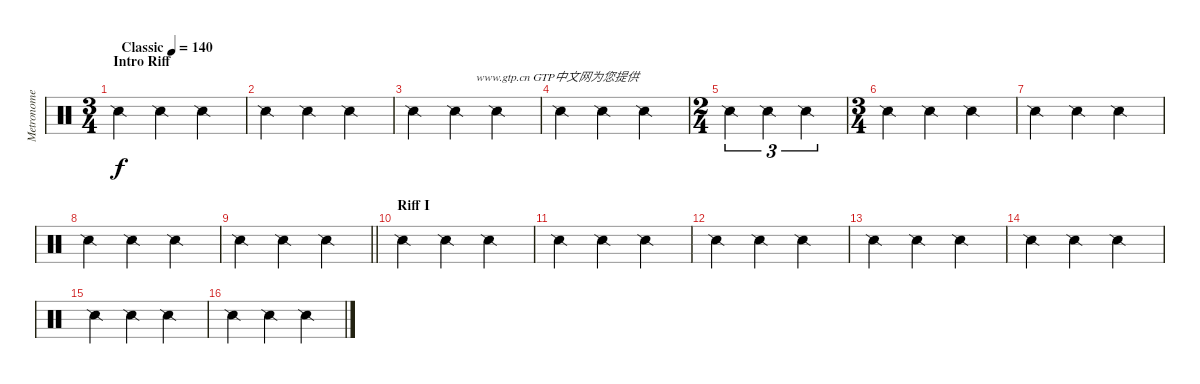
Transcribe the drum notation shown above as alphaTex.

\track ("Metronome" "Metronome") {instrument percussion}
\staff {score}
\articulation defaults
\ts (3 4)
\section ("" "Intro Riff")
\tempo (140 "Classic")
\clef neutral
\ks c "Snare (side stick) 2".4{dy f volume 13 balance 8} "Snare (side stick) 2".4 "Snare (side stick) 2".4
|
"Snare (side stick) 2".4 "Snare (side stick) 2".4 "Snare (side stick) 2".4 |
"Snare (side stick) 2".4{txt "                    www.gtp.cn GTP中文网为您提供"} "Snare (side stick) 2".4 "Snare (side stick) 2".4 |
"Snare (side stick) 2".4 "Snare (side stick) 2".4 "Snare (side stick) 2".4 |
\ts (2 4)
"Snare (side stick) 2".4{tu (3 2)} "Snare (side stick) 2".4{tu (3 2)} "Snare (side stick) 2".4{tu (3 2)} |
\ts (3 4)
"Snare (side stick) 2".4 "Snare (side stick) 2".4 "Snare (side stick) 2".4 |
"Snare (side stick) 2".4 "Snare (side stick) 2".4 "Snare (side stick) 2".4 |
"Snare (side stick) 2".4 "Snare (side stick) 2".4 "Snare (side stick) 2".4 |
\barLineRight lightlight "Snare (side stick) 2".4 "Snare (side stick) 2".4 "Snare (side stick) 2".4
|
\section ("" "Riff I")
"Snare (side stick) 2".4 "Snare (side stick) 2".4 "Snare (side stick) 2".4 |
"Snare (side stick) 2".4 "Snare (side stick) 2".4 "Snare (side stick) 2".4 |
"Snare (side stick) 2".4 "Snare (side stick) 2".4 "Snare (side stick) 2".4 |
"Snare (side stick) 2".4 "Snare (side stick) 2".4 "Snare (side stick) 2".4 |
"Snare (side stick) 2".4 "Snare (side stick) 2".4 "Snare (side stick) 2".4 |
"Snare (side stick) 2".4 "Snare (side stick) 2".4 "Snare (side stick) 2".4 |
"Snare (side stick) 2".4 "Snare (side stick) 2".4 "Snare (side stick) 2".4
